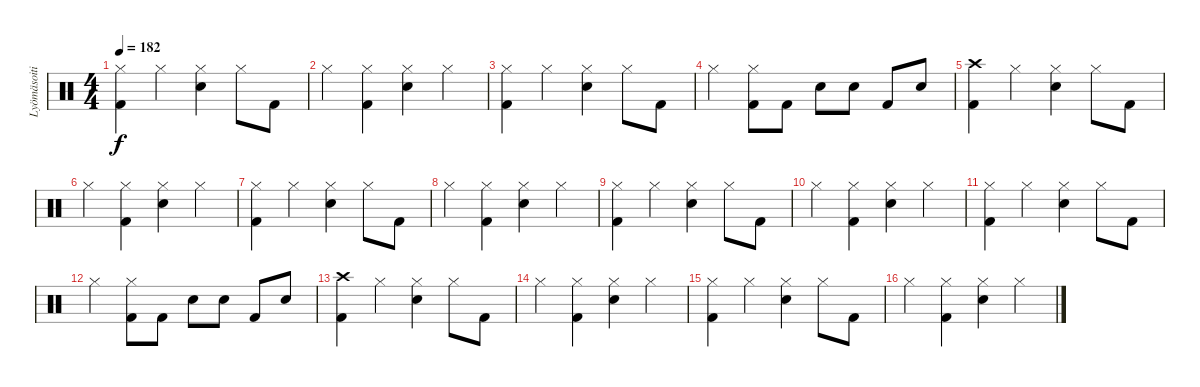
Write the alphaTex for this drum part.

\track ("Lyömäsoitin" "Lyömäsoiti") {instrument percussion}
\staff {score}
\articulation defaults
\ts (4 4)
\tempo 182
\clef neutral
\ks c
("Hi-Hat (closed)" "Kick (hit) 2").4{dy f} "Hi-Hat (closed)".4 ("Hi-Hat (closed)" "Electric Snare (hit)").4 "Hi-Hat (closed)".8 "Kick (hit) 2".8 |
"Hi-Hat (closed)".4 ("Hi-Hat (closed)" "Kick (hit) 2").4 ("Hi-Hat (closed)" "Electric Snare (hit)").4 "Hi-Hat (closed)".4 |
("Hi-Hat (closed)" "Kick (hit) 2").4 "Hi-Hat (closed)".4 ("Hi-Hat (closed)" "Electric Snare (hit)").4 "Hi-Hat (closed)".8 "Kick (hit) 2".8 |
"Hi-Hat (closed)".4 ("Hi-Hat (closed)" "Kick (hit) 2").8 "Kick (hit) 2".8 "Electric Snare (hit)".8 "Electric Snare (hit)".8 "Kick (hit) 2".8 "Electric Snare (hit)".8 |
("Crash high (hit)" "Kick (hit) 2").4 "Hi-Hat (closed)".4 ("Hi-Hat (closed)" "Electric Snare (hit)").4 "Hi-Hat (closed)".8 "Kick (hit) 2".8 |
"Hi-Hat (closed)".4 ("Hi-Hat (closed)" "Kick (hit) 2").4 ("Hi-Hat (closed)" "Electric Snare (hit)").4 "Hi-Hat (closed)".4 |
("Hi-Hat (closed)" "Kick (hit) 2").4 "Hi-Hat (closed)".4 ("Hi-Hat (closed)" "Electric Snare (hit)").4 "Hi-Hat (closed)".8 "Kick (hit) 2".8 |
"Hi-Hat (closed)".4 ("Hi-Hat (closed)" "Kick (hit) 2").4 ("Hi-Hat (closed)" "Electric Snare (hit)").4 "Hi-Hat (closed)".4 |
("Hi-Hat (closed)" "Kick (hit) 2").4 "Hi-Hat (closed)".4 ("Hi-Hat (closed)" "Electric Snare (hit)").4 "Hi-Hat (closed)".8 "Kick (hit) 2".8 |
"Hi-Hat (closed)".4 ("Hi-Hat (closed)" "Kick (hit) 2").4 ("Hi-Hat (closed)" "Electric Snare (hit)").4 "Hi-Hat (closed)".4 |
("Hi-Hat (closed)" "Kick (hit) 2").4 "Hi-Hat (closed)".4 ("Hi-Hat (closed)" "Electric Snare (hit)").4 "Hi-Hat (closed)".8 "Kick (hit) 2".8 |
"Hi-Hat (closed)".4 ("Hi-Hat (closed)" "Kick (hit) 2").8 "Kick (hit) 2".8 "Electric Snare (hit)".8 "Electric Snare (hit)".8 "Kick (hit) 2".8 "Electric Snare (hit)".8 |
("Crash high (hit)" "Kick (hit) 2").4 "Hi-Hat (closed)".4 ("Hi-Hat (closed)" "Electric Snare (hit)").4 "Hi-Hat (closed)".8 "Kick (hit) 2".8 |
"Hi-Hat (closed)".4 ("Hi-Hat (closed)" "Kick (hit) 2").4 ("Hi-Hat (closed)" "Electric Snare (hit)").4 "Hi-Hat (closed)".4 |
("Hi-Hat (closed)" "Kick (hit) 2").4 "Hi-Hat (closed)".4 ("Hi-Hat (closed)" "Electric Snare (hit)").4 "Hi-Hat (closed)".8 "Kick (hit) 2".8 |
"Hi-Hat (closed)".4 ("Hi-Hat (closed)" "Kick (hit) 2").4 ("Hi-Hat (closed)" "Electric Snare (hit)").4 "Hi-Hat (closed)".4
